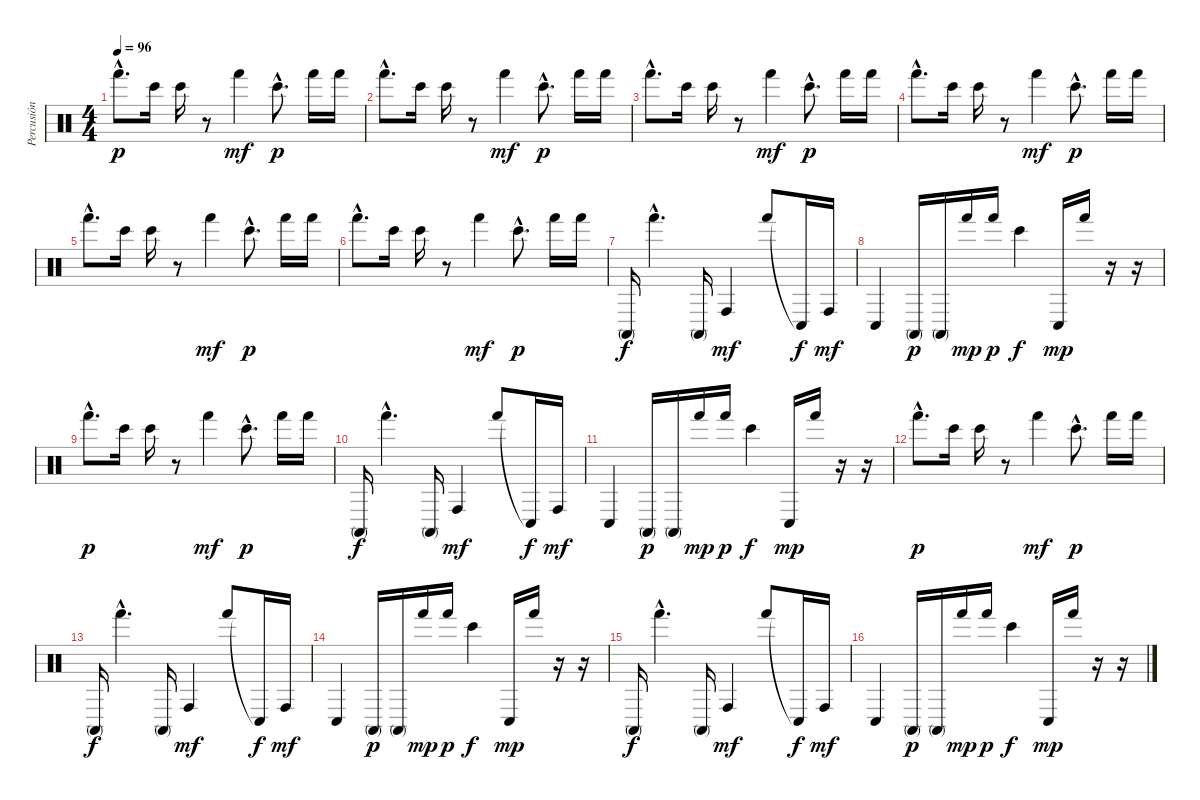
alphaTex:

\track ("Percusión" "Percusión") {instrument percussion}
\staff {score}
\articulation defaults
\ts (4 4)
\tempo 96
\clef neutral
\ks c "Hand (hit)"{hac}.8{d dy p} "Bongo High (hit)".16 "Bongo High (hit)".16
r.8 "Hand (hit)".4{dy mf} "Bongo High (hit)"{hac}.8{d dy p} "Hand (hit)".16 "Hand (hit)".16 |
"Hand (hit)"{hac}.8{d} "Bongo High (hit)".16 "Bongo High (hit)".16 r.8 "Hand (hit)".4{dy mf} "Bongo High (hit)"{hac}.8{d dy p} "Hand (hit)".16 "Hand (hit)".16 |
"Hand (hit)"{hac}.8{d} "Bongo High (hit)".16 "Bongo High (hit)".16 r.8 "Hand (hit)".4{dy mf} "Bongo High (hit)"{hac}.8{d dy p} "Hand (hit)".16 "Hand (hit)".16 |
"Hand (hit)"{hac}.8{d} "Bongo High (hit)".16 "Bongo High (hit)".16 r.8 "Hand (hit)".4{dy mf} "Bongo High (hit)"{hac}.8{d dy p} "Hand (hit)".16 "Hand (hit)".16 |
"Hand (hit)"{hac}.8{d} "Bongo High (hit)".16 "Bongo High (hit)".16 r.8 "Hand (hit)".4{dy mf} "Bongo High (hit)"{hac}.8{d dy p} "Hand (hit)".16 "Hand (hit)".16 |
"Hand (hit)"{hac}.8{d} "Bongo High (hit)".16 "Bongo High (hit)".16 r.8 "Hand (hit)".4{dy mf} "Bongo High (hit)"{hac}.8{d dy p} "Hand (hit)".16 "Hand (hit)".16 |
"Conga high (mute)".16{dy f} "Hand (hit)"{hac}.4{d} "Conga high (mute)".16 "Conga high (hit)".4{dy mf} "Hand (hit)".8 "Conga low (hit)"{t}.16{dy f} "Conga high (hit)".16{dy mf} |
"Conga low (hit)".4 "Conga high (mute)".16{dy p} "Conga high (mute)".16 "Hand (hit)".16{dy mp} "Hand (hit)".16{dy p} "Bongo High (hit)".4{dy f} "Conga low (hit)".16{dy mp} "Hand (hit)".16 r.16 r.16 |
"Hand (hit)"{hac}.8{d dy p} "Bongo High (hit)".16 "Bongo High (hit)".16 r.8 "Hand (hit)".4{dy mf} "Bongo High (hit)"{hac}.8{d dy p} "Hand (hit)".16 "Hand (hit)".16 |
"Conga high (mute)".16{dy f} "Hand (hit)"{hac}.4{d} "Conga high (mute)".16 "Conga high (hit)".4{dy mf} "Hand (hit)".8 "Conga low (hit)"{t}.16{dy f} "Conga high (hit)".16{dy mf} |
"Conga low (hit)".4 "Conga high (mute)".16{dy p} "Conga high (mute)".16 "Hand (hit)".16{dy mp} "Hand (hit)".16{dy p} "Bongo High (hit)".4{dy f} "Conga low (hit)".16{dy mp} "Hand (hit)".16 r.16 r.16 |
"Hand (hit)"{hac}.8{d dy p} "Bongo High (hit)".16 "Bongo High (hit)".16 r.8 "Hand (hit)".4{dy mf} "Bongo High (hit)"{hac}.8{d dy p} "Hand (hit)".16 "Hand (hit)".16 |
"Conga high (mute)".16{dy f} "Hand (hit)"{hac}.4{d} "Conga high (mute)".16 "Conga high (hit)".4{dy mf} "Hand (hit)".8 "Conga low (hit)"{t}.16{dy f} "Conga high (hit)".16{dy mf} |
"Conga low (hit)".4 "Conga high (mute)".16{dy p} "Conga high (mute)".16 "Hand (hit)".16{dy mp} "Hand (hit)".16{dy p} "Bongo High (hit)".4{dy f} "Conga low (hit)".16{dy mp} "Hand (hit)".16 r.16 r.16 |
"Conga high (mute)".16{dy f} "Hand (hit)"{hac}.4{d} "Conga high (mute)".16 "Conga high (hit)".4{dy mf} "Hand (hit)".8 "Conga low (hit)"{t}.16{dy f} "Conga high (hit)".16{dy mf} |
"Conga low (hit)".4 "Conga high (mute)".16{dy p} "Conga high (mute)".16 "Hand (hit)".16{dy mp} "Hand (hit)".16{dy p} "Bongo High (hit)".4{dy f} "Conga low (hit)".16{dy mp} "Hand (hit)".16 r.16 r.16
